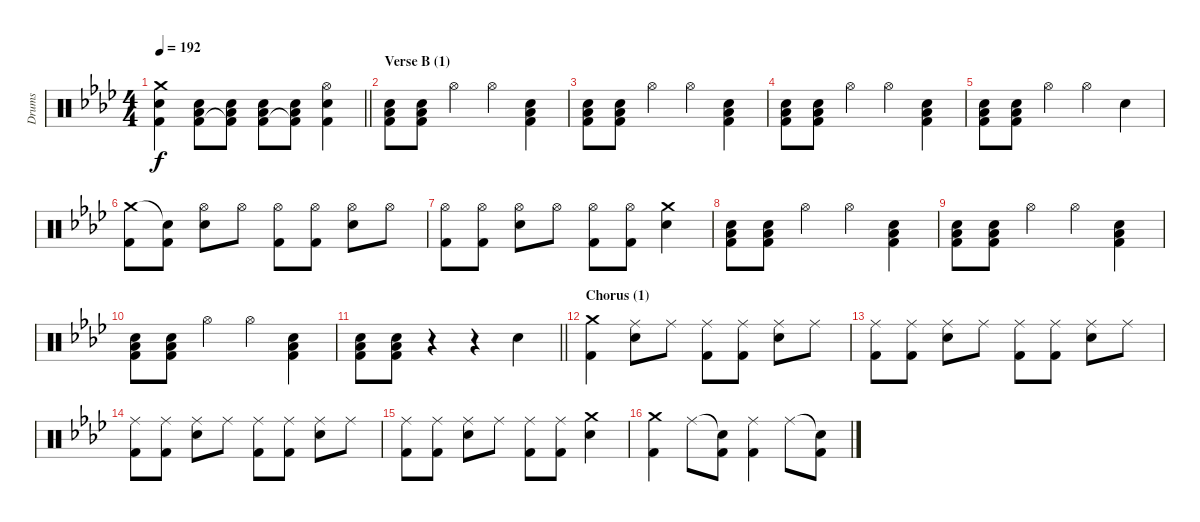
\track ("Drums" "Drums") {instrument percussion}
\staff {score}
\articulation defaults
\ts (4 4)
\tempo 192
\clef neutral
\barLineRight lightlight
\ks ab
("Crash medium (hit)" "Electric Snare (hit)" "Kick (hit) 2").4{dy f} ("Electric Snare (hit)" "Low Floor Tom (hit)" "Kick (hit) 2").8 ("Electric Snare (hit)" "Low Floor Tom (hit)" "Kick (hit) 2"{t}).8 ("Electric Snare (hit)" "Low Floor Tom (hit)" "Kick (hit) 2").8 ("Electric Snare (hit)" "Low Floor Tom (hit)" "Kick (hit) 2"{t}).8 ("Hi-Hat (open)" "Electric Snare (hit)" "Kick (hit) 2").4 |
\section ("" "Verse B (1)")
("Electric Snare (hit)" "Low Floor Tom (hit)" "Kick (hit) 2").8 ("Electric Snare (hit)" "Low Floor Tom (hit)" "Kick (hit) 2").8 "Hi-Hat (open)".4 "Hi-Hat (open)".4 ("Electric Snare (hit)" "Low Floor Tom (hit)" "Kick (hit) 2").4 |
("Electric Snare (hit)" "Low Floor Tom (hit)" "Kick (hit) 2").8 ("Electric Snare (hit)" "Low Floor Tom (hit)" "Kick (hit) 2").8 "Hi-Hat (open)".4 "Hi-Hat (open)".4 ("Electric Snare (hit)" "Low Floor Tom (hit)" "Kick (hit) 2").4 |
("Electric Snare (hit)" "Low Floor Tom (hit)" "Kick (hit) 2").8 ("Electric Snare (hit)" "Low Floor Tom (hit)" "Kick (hit) 2").8 "Hi-Hat (open)".4 "Hi-Hat (open)".4 ("Electric Snare (hit)" "Low Floor Tom (hit)" "Kick (hit) 2").4 |
("Electric Snare (hit)" "Low Floor Tom (hit)" "Kick (hit) 2").8 ("Electric Snare (hit)" "Low Floor Tom (hit)" "Kick (hit) 2").8 "Hi-Hat (open)".4 "Hi-Hat (open)".4 "Electric Snare (hit)".4 |
("Crash medium (hit)" "Kick (hit) 2").8 ("Snare (hit)"{t} "Kick (hit) 2").8 ("Hi-Hat (open)" "Electric Snare (hit)").8 "Hi-Hat (open)".8 ("Hi-Hat (open)" "Kick (hit) 2").8 ("Hi-Hat (open)" "Kick (hit) 2").8 ("Hi-Hat (open)" "Electric Snare (hit)").8 "Hi-Hat (open)".8 |
("Hi-Hat (open)" "Kick (hit) 2").8 ("Hi-Hat (open)" "Kick (hit) 2").8 ("Hi-Hat (open)" "Electric Snare (hit)").8 "Hi-Hat (open)".8 ("Hi-Hat (open)" "Kick (hit) 2").8 ("Hi-Hat (open)" "Kick (hit) 2").8 ("Crash medium (hit)" "Electric Snare (hit)").4 |
("Electric Snare (hit)" "Low Floor Tom (hit)" "Kick (hit) 2").8 ("Electric Snare (hit)" "Low Floor Tom (hit)" "Kick (hit) 2").8 "Hi-Hat (open)".4 "Hi-Hat (open)".4 ("Electric Snare (hit)" "Low Floor Tom (hit)" "Kick (hit) 2").4 |
("Electric Snare (hit)" "Low Floor Tom (hit)" "Kick (hit) 2").8 ("Electric Snare (hit)" "Low Floor Tom (hit)" "Kick (hit) 2").8 "Hi-Hat (open)".4 "Hi-Hat (open)".4 ("Electric Snare (hit)" "Low Floor Tom (hit)" "Kick (hit) 2").4 |
("Electric Snare (hit)" "Low Floor Tom (hit)" "Kick (hit) 2").8 ("Electric Snare (hit)" "Low Floor Tom (hit)" "Kick (hit) 2").8 "Hi-Hat (open)".4 "Hi-Hat (open)".4 ("Electric Snare (hit)" "Low Floor Tom (hit)" "Kick (hit) 2").4 |
\barLineRight lightlight
("Electric Snare (hit)" "Low Floor Tom (hit)" "Kick (hit) 2").8 ("Electric Snare (hit)" "Low Floor Tom (hit)" "Kick (hit) 2").8 r.4 r.4 "Electric Snare (hit)".4 |
\section ("" "Chorus (1)")
("Crash medium (hit)" "Kick (hit) 2").4 ("Ride (middle)" "Electric Snare (hit)").8 "Ride (middle)".8 ("Ride (middle)" "Kick (hit) 2").8 ("Ride (middle)" "Kick (hit) 2").8 ("Ride (middle)" "Electric Snare (hit)").8 "Ride (middle)".8 |
("Ride (middle)" "Kick (hit) 2").8 ("Ride (middle)" "Kick (hit) 2").8 ("Ride (middle)" "Electric Snare (hit)").8 "Ride (middle)".8 ("Ride (middle)" "Kick (hit) 2").8 ("Ride (middle)" "Kick (hit) 2").8 ("Ride (middle)" "Electric Snare (hit)").8 "Ride (middle)".8 |
("Ride (middle)" "Kick (hit) 2").8 ("Ride (middle)" "Kick (hit) 2").8 ("Ride (middle)" "Electric Snare (hit)").8 "Ride (middle)".8 ("Ride (middle)" "Kick (hit) 2").8 ("Ride (middle)" "Kick (hit) 2").8 ("Ride (middle)" "Electric Snare (hit)").8 "Ride (middle)".8 |
("Ride (middle)" "Kick (hit) 2").8 ("Ride (middle)" "Kick (hit) 2").8 ("Ride (middle)" "Electric Snare (hit)").8 "Ride (middle)".8 ("Ride (middle)" "Kick (hit) 2").8 ("Ride (middle)" "Kick (hit) 2").8 ("Crash medium (hit)" "Electric Snare (hit)").4 |
("Crash medium (hit)" "Kick (hit) 2").4 "Ride (middle)".8 ("Snare (hit)"{t} "Kick (hit) 2").8 ("Ride (middle)" "Kick (hit) 2").4 "Ride (middle)".8 ("Snare (hit)"{t} "Kick (hit) 2").8
